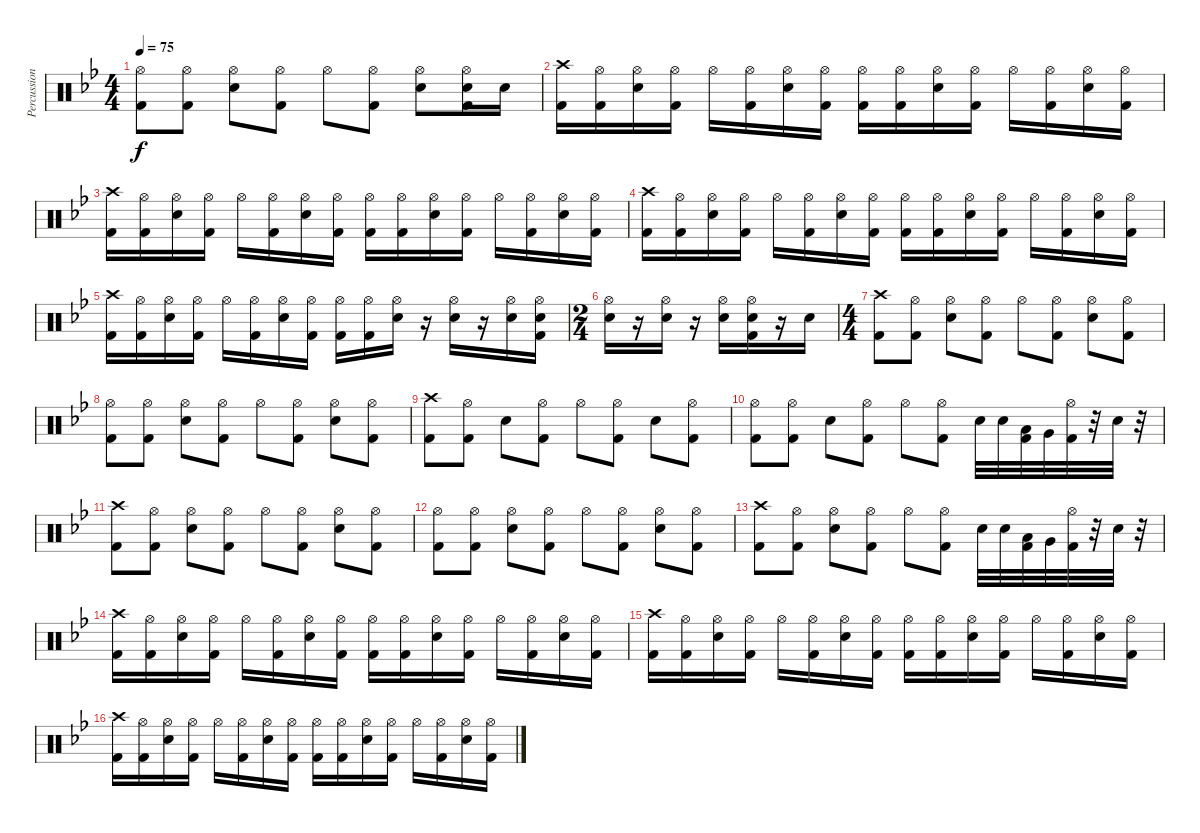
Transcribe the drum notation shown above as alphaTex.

\track ("Percussion" "Percussion") {instrument percussion}
\staff {score}
\articulation defaults
\ts (4 4)
\tempo 75
\clef neutral
\ks bb
("Hi-Hat (open)" "Kick (hit) 2").8{dy f} ("Hi-Hat (open)" "Kick (hit) 2").8 ("Hi-Hat (open)" "Electric Snare (hit)").8 ("Hi-Hat (open)" "Kick (hit) 2").8 "Hi-Hat (open)".8 ("Hi-Hat (open)" "Kick (hit) 2").8 ("Hi-Hat (open)" "Electric Snare (hit)").8 ("Hi-Hat (open)" "Electric Snare (hit)" "Kick (hit) 2").16 "Electric Snare (hit)".16 |
("Crash high (hit)" "Kick (hit) 2").16 ("Hi-Hat (open)" "Kick (hit) 2").16 ("Hi-Hat (open)" "Electric Snare (hit)").16 ("Hi-Hat (open)" "Kick (hit) 2").16 "Hi-Hat (open)".16 ("Hi-Hat (open)" "Kick (hit) 2").16 ("Hi-Hat (open)" "Electric Snare (hit)").16 ("Hi-Hat (open)" "Kick (hit) 2").16 ("Hi-Hat (open)" "Kick (hit) 2").16 ("Hi-Hat (open)" "Kick (hit) 2").16 ("Hi-Hat (open)" "Electric Snare (hit)").16 ("Hi-Hat (open)" "Kick (hit) 2").16 "Hi-Hat (open)".16 ("Hi-Hat (open)" "Kick (hit) 2").16 ("Hi-Hat (open)" "Electric Snare (hit)").16 ("Hi-Hat (open)" "Kick (hit) 2").16 |
("Crash high (hit)" "Kick (hit) 2").16 ("Hi-Hat (open)" "Kick (hit) 2").16 ("Hi-Hat (open)" "Electric Snare (hit)").16 ("Hi-Hat (open)" "Kick (hit) 2").16 "Hi-Hat (open)".16 ("Hi-Hat (open)" "Kick (hit) 2").16 ("Hi-Hat (open)" "Electric Snare (hit)").16 ("Hi-Hat (open)" "Kick (hit) 2").16 ("Hi-Hat (open)" "Kick (hit) 2").16 ("Hi-Hat (open)" "Kick (hit) 2").16 ("Hi-Hat (open)" "Electric Snare (hit)").16 ("Hi-Hat (open)" "Kick (hit) 2").16 "Hi-Hat (open)".16 ("Hi-Hat (open)" "Kick (hit) 2").16 ("Hi-Hat (open)" "Electric Snare (hit)").16 ("Hi-Hat (open)" "Kick (hit) 2").16 |
("Crash high (hit)" "Kick (hit) 2").16 ("Hi-Hat (open)" "Kick (hit) 2").16 ("Hi-Hat (open)" "Electric Snare (hit)").16 ("Hi-Hat (open)" "Kick (hit) 2").16 "Hi-Hat (open)".16 ("Hi-Hat (open)" "Kick (hit) 2").16 ("Hi-Hat (open)" "Electric Snare (hit)").16 ("Hi-Hat (open)" "Kick (hit) 2").16 ("Hi-Hat (open)" "Kick (hit) 2").16 ("Hi-Hat (open)" "Kick (hit) 2").16 ("Hi-Hat (open)" "Electric Snare (hit)").16 ("Hi-Hat (open)" "Kick (hit) 2").16 "Hi-Hat (open)".16 ("Hi-Hat (open)" "Kick (hit) 2").16 ("Hi-Hat (open)" "Electric Snare (hit)").16 ("Hi-Hat (open)" "Kick (hit) 2").16 |
("Crash high (hit)" "Kick (hit) 2").16 ("Hi-Hat (open)" "Kick (hit) 2").16 ("Hi-Hat (open)" "Electric Snare (hit)").16 ("Hi-Hat (open)" "Kick (hit) 2").16 "Hi-Hat (open)".16 ("Hi-Hat (open)" "Kick (hit) 2").16 ("Hi-Hat (open)" "Electric Snare (hit)").16 ("Hi-Hat (open)" "Kick (hit) 2").16 ("Hi-Hat (open)" "Kick (hit) 2").16 ("Hi-Hat (open)" "Kick (hit) 2").16 ("Hi-Hat (open)" "Electric Snare (hit)").16 r.16 ("Hi-Hat (open)" "Electric Snare (hit)").16 r.16 ("Hi-Hat (open)" "Electric Snare (hit)").16 ("Hi-Hat (open)" "Electric Snare (hit)" "Kick (hit) 2").16 |
\ts (2 4)
("Hi-Hat (open)" "Electric Snare (hit)").16 r.16 ("Hi-Hat (open)" "Electric Snare (hit)").16 r.16 ("Hi-Hat (open)" "Electric Snare (hit)").16 ("Hi-Hat (open)" "Electric Snare (hit)" "Kick (hit) 2").16 r.16 "Electric Snare (hit)".16 |
\ts (4 4)
("Crash high (hit)" "Kick (hit) 2").8 ("Hi-Hat (open)" "Kick (hit) 2").8 ("Hi-Hat (open)" "Electric Snare (hit)").8 ("Hi-Hat (open)" "Kick (hit) 2").8 "Hi-Hat (open)".8 ("Hi-Hat (open)" "Kick (hit) 2").8 ("Hi-Hat (open)" "Electric Snare (hit)").8 ("Hi-Hat (open)" "Kick (hit) 2").8 |
("Hi-Hat (open)" "Kick (hit) 2").8 ("Hi-Hat (open)" "Kick (hit) 2").8 ("Hi-Hat (open)" "Electric Snare (hit)").8 ("Hi-Hat (open)" "Kick (hit) 2").8 "Hi-Hat (open)".8 ("Hi-Hat (open)" "Kick (hit) 2").8 ("Hi-Hat (open)" "Electric Snare (hit)").8 ("Hi-Hat (open)" "Kick (hit) 2").8 |
("Crash high (hit)" "Kick (hit) 2").8 ("Hi-Hat (open)" "Kick (hit) 2").8 "Electric Snare (hit)".8 ("Hi-Hat (open)" "Kick (hit) 2").8 "Hi-Hat (open)".8 ("Hi-Hat (open)" "Kick (hit) 2").8 "Electric Snare (hit)".8 ("Hi-Hat (open)" "Kick (hit) 2").8 |
("Hi-Hat (open)" "Kick (hit) 2").8 ("Hi-Hat (open)" "Kick (hit) 2").8 "Electric Snare (hit)".8 ("Hi-Hat (open)" "Kick (hit) 2").8 "Hi-Hat (open)".8 ("Hi-Hat (open)" "Kick (hit) 2").8 "Electric Snare (hit)".32 "Electric Snare (hit)".32 ("Low Tom (hit)" "Kick (hit) 2").32 "Very Low Tom (hit)".32 ("Hi-Hat (open)" "Kick (hit) 2").32 r.32 "Electric Snare (hit)".32 r.32 |
("Crash high (hit)" "Kick (hit) 2").8 ("Hi-Hat (open)" "Kick (hit) 2").8 ("Hi-Hat (open)" "Electric Snare (hit)").8 ("Hi-Hat (open)" "Kick (hit) 2").8 "Hi-Hat (open)".8 ("Hi-Hat (open)" "Kick (hit) 2").8 ("Hi-Hat (open)" "Electric Snare (hit)").8 ("Hi-Hat (open)" "Kick (hit) 2").8 |
("Hi-Hat (open)" "Kick (hit) 2").8 ("Hi-Hat (open)" "Kick (hit) 2").8 ("Hi-Hat (open)" "Electric Snare (hit)").8 ("Hi-Hat (open)" "Kick (hit) 2").8 "Hi-Hat (open)".8 ("Hi-Hat (open)" "Kick (hit) 2").8 ("Hi-Hat (open)" "Electric Snare (hit)").8 ("Hi-Hat (open)" "Kick (hit) 2").8 |
("Crash high (hit)" "Kick (hit) 2").8 ("Hi-Hat (open)" "Kick (hit) 2").8 ("Hi-Hat (open)" "Electric Snare (hit)").8 ("Hi-Hat (open)" "Kick (hit) 2").8 "Hi-Hat (open)".8 ("Hi-Hat (open)" "Kick (hit) 2").8 "Electric Snare (hit)".32 "Electric Snare (hit)".32 ("Low Tom (hit)" "Kick (hit) 2").32 "Very Low Tom (hit)".32 ("Hi-Hat (open)" "Kick (hit) 2").32 r.32 "Electric Snare (hit)".32 r.32 |
("Crash high (hit)" "Kick (hit) 2").16 ("Hi-Hat (open)" "Kick (hit) 2").16 ("Hi-Hat (open)" "Electric Snare (hit)").16 ("Hi-Hat (open)" "Kick (hit) 2").16 "Hi-Hat (open)".16 ("Hi-Hat (open)" "Kick (hit) 2").16 ("Hi-Hat (open)" "Electric Snare (hit)").16 ("Hi-Hat (open)" "Kick (hit) 2").16 ("Hi-Hat (open)" "Kick (hit) 2").16 ("Hi-Hat (open)" "Kick (hit) 2").16 ("Hi-Hat (open)" "Electric Snare (hit)").16 ("Hi-Hat (open)" "Kick (hit) 2").16 "Hi-Hat (open)".16 ("Hi-Hat (open)" "Kick (hit) 2").16 ("Hi-Hat (open)" "Electric Snare (hit)").16 ("Hi-Hat (open)" "Kick (hit) 2").16 |
("Crash high (hit)" "Kick (hit) 2").16 ("Hi-Hat (open)" "Kick (hit) 2").16 ("Hi-Hat (open)" "Electric Snare (hit)").16 ("Hi-Hat (open)" "Kick (hit) 2").16 "Hi-Hat (open)".16 ("Hi-Hat (open)" "Kick (hit) 2").16 ("Hi-Hat (open)" "Electric Snare (hit)").16 ("Hi-Hat (open)" "Kick (hit) 2").16 ("Hi-Hat (open)" "Kick (hit) 2").16 ("Hi-Hat (open)" "Kick (hit) 2").16 ("Hi-Hat (open)" "Electric Snare (hit)").16 ("Hi-Hat (open)" "Kick (hit) 2").16 "Hi-Hat (open)".16 ("Hi-Hat (open)" "Kick (hit) 2").16 ("Hi-Hat (open)" "Electric Snare (hit)").16 ("Hi-Hat (open)" "Kick (hit) 2").16 |
("Crash high (hit)" "Kick (hit) 2").16 ("Hi-Hat (open)" "Kick (hit) 2").16 ("Hi-Hat (open)" "Electric Snare (hit)").16 ("Hi-Hat (open)" "Kick (hit) 2").16 "Hi-Hat (open)".16 ("Hi-Hat (open)" "Kick (hit) 2").16 ("Hi-Hat (open)" "Electric Snare (hit)").16 ("Hi-Hat (open)" "Kick (hit) 2").16 ("Hi-Hat (open)" "Kick (hit) 2").16 ("Hi-Hat (open)" "Kick (hit) 2").16 ("Hi-Hat (open)" "Electric Snare (hit)").16 ("Hi-Hat (open)" "Kick (hit) 2").16 "Hi-Hat (open)".16 ("Hi-Hat (open)" "Kick (hit) 2").16 ("Hi-Hat (open)" "Electric Snare (hit)").16 ("Hi-Hat (open)" "Kick (hit) 2").16
